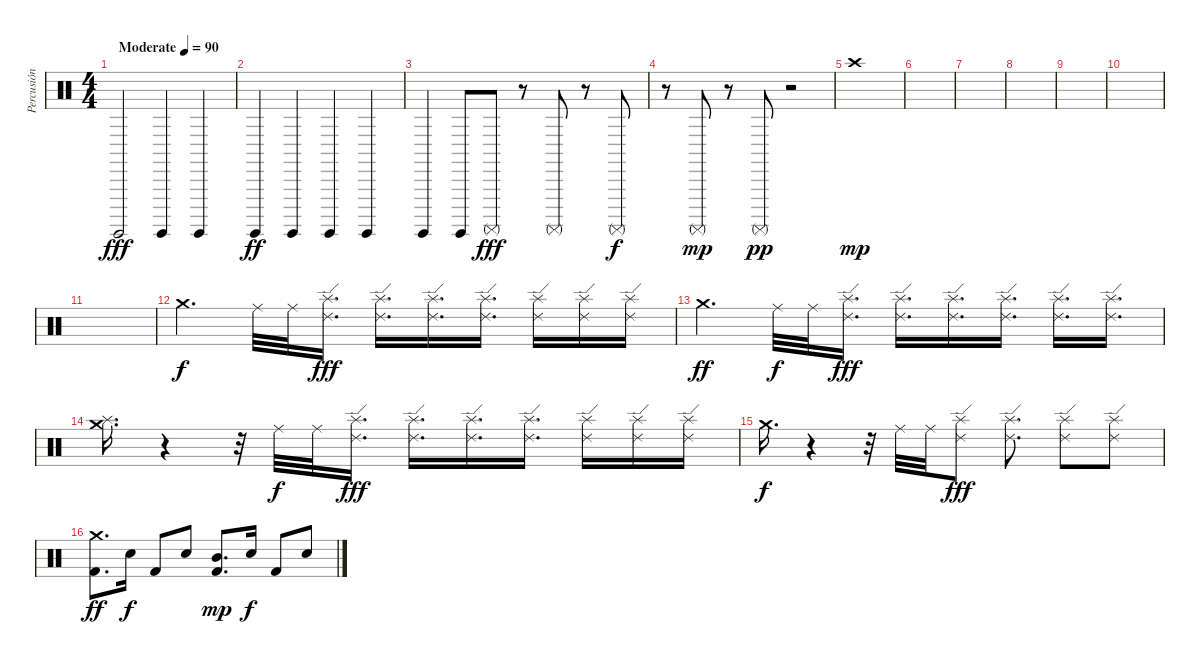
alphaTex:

\track ("Percusión" "Percusión") {instrument percussion}
\staff {score}
\articulation defaults
\ts (4 4)
\tempo (90 "Moderate")
\clef neutral
\ks c "Surdo (hit)".2{dy fff} "Surdo (hit)".4 "Surdo (hit)".4
|
"Surdo (hit)".4{dy ff} "Surdo (hit)".4 "Surdo (hit)".4 "Surdo (hit)".4 |
"Surdo (hit)".4 "Surdo (hit)".8 "Surdo (mute)".8{dy fff balance 2} r.8 "Surdo (mute)".8{balance 13} r.8 "Surdo (mute)".8{dy f balance 3} |
r.8 "Surdo (mute)".8{dy mp balance 12} r.8 "Surdo (mute)".8{dy pp balance 5} r.2 |
"Crash high (hit)".1{dy mp} |
|
|
|
|
|
|
"Crash medium (hit)".4{d dy f} "Ride (middle)".32 "Ride (middle)".32 ("Splash (hit)" "Ride (edge) 2").16{d dy fff} ("Splash (hit)" "Ride (edge) 2").16{d} ("Splash (hit)" "Ride (edge) 2").16{d} ("Splash (hit)" "Ride (edge) 2").16{d} ("Splash (hit)" "Ride (edge) 2").16 ("Splash (hit)" "Ride (edge) 2").16 ("Splash (hit)" "Ride (edge) 2").16 |
"Crash medium (hit)".4{d dy ff} "Ride (middle)".32{dy f} "Ride (middle)".32 ("Splash (hit)" "Ride (edge) 2").16{d dy fff} ("Splash (hit)" "Ride (edge) 2").16{d} ("Splash (hit)" "Ride (edge) 2").16{d} ("Splash (hit)" "Ride (edge) 2").16{d} ("Splash (hit)" "Ride (edge) 2").16{d} ("Splash (hit)" "Ride (edge) 2").16{d} |
("Splash (hit)" "Crash medium (hit)").16{d} r.4 r.32 "Ride (middle)".32{dy f} "Ride (middle)".32 ("Splash (hit)" "Ride (edge) 2").16{d dy fff} ("Splash (hit)" "Ride (edge) 2").16{d} ("Splash (hit)" "Ride (edge) 2").16{d} ("Splash (hit)" "Ride (edge) 2").16{d} ("Splash (hit)" "Ride (edge) 2").16 ("Splash (hit)" "Ride (edge) 2").16 ("Splash (hit)" "Ride (edge) 2").16 |
"Crash medium (hit)".16{d dy f} r.4 r.32 "Ride (middle)".32 "Ride (middle)".32 ("Splash (hit)" "Ride (edge) 2").8{dy fff} ("Splash (hit)" "Ride (edge) 2").8{d} ("Splash (hit)" "Ride (edge) 2").8 ("Splash (hit)" "Ride (edge) 2").8 |
("Kick (hit) 2" "Crash medium (hit)").8{d dy ff} "Electric Snare (hit)".16{dy f} "Kick (hit) 2".8 "Electric Snare (hit)".8 ("Kick (hit) 2" "Mid Tom (hit)").8{d dy mp} "Electric Snare (hit)".16{dy f} "Kick (hit) 2".8 "Electric Snare (hit)".8
